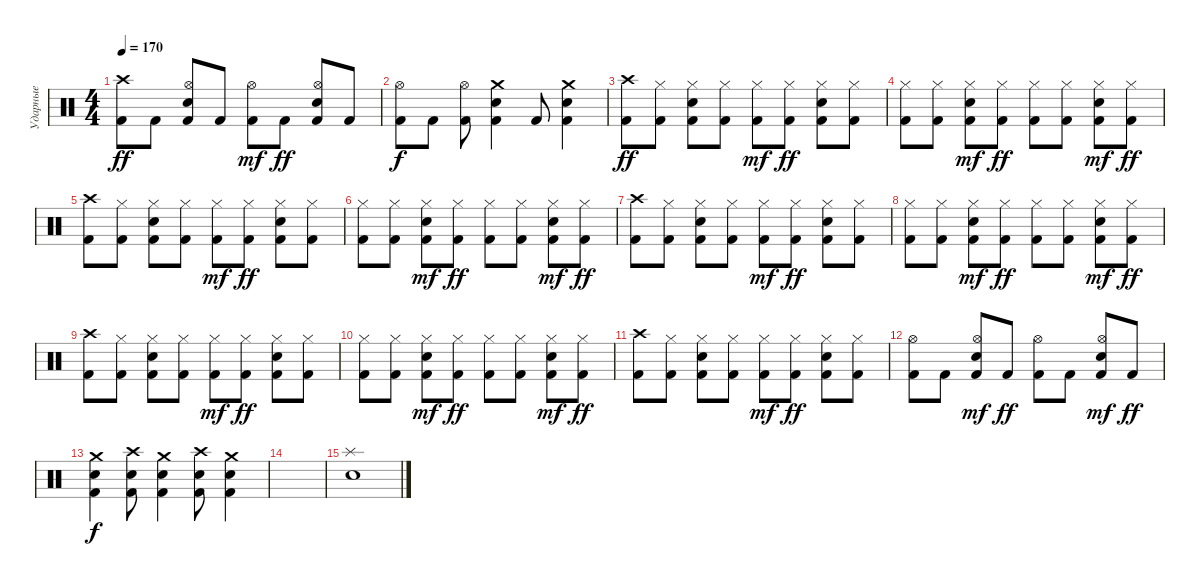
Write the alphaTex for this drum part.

\track ("Ударные" "Ударные") {instrument percussion}
\staff {score}
\articulation defaults
\ts (4 4)
\tempo 170
\clef neutral
\ks c
("Crash high (hit)" "Kick (hit) 2").8{dy ff} "Kick (hit) 2".8 ("Hi-Hat (open)" "Kick (hit) 2" "Electric Snare (hit)").8 "Kick (hit) 2".8 ("Kick (hit) 2" "Hi-Hat (open)").8{dy mf} "Kick (hit) 2".8{dy ff} ("Kick (hit) 2" "Hi-Hat (open)" "Electric Snare (hit)").8 "Kick (hit) 2".8 |
("Kick (hit) 2" "Hi-Hat (open)").8{dy f} "Kick (hit) 2".8 ("Kick (hit) 2" "Hi-Hat (open)").8 ("Crash medium (hit)" "Electric Snare (hit)" "Kick (hit) 2").4 "Kick (hit) 2".8 ("Crash medium (hit)" "Electric Snare (hit)" "Kick (hit) 2").4 |
("Crash high (hit)" "Kick (hit) 2").8{dy ff} ("Kick (hit) 2" "Hi-Hat (closed)").8 ("Hi-Hat (closed)" "Kick (hit) 2" "Electric Snare (hit)").8 ("Kick (hit) 2" "Hi-Hat (closed)").8 ("Kick (hit) 2" "Hi-Hat (closed)").8{dy mf} ("Kick (hit) 2" "Hi-Hat (closed)").8{dy ff} ("Kick (hit) 2" "Hi-Hat (closed)" "Electric Snare (hit)").8 ("Kick (hit) 2" "Hi-Hat (closed)").8 |
("Hi-Hat (closed)" "Kick (hit) 2").8 ("Kick (hit) 2" "Hi-Hat (closed)").8 ("Kick (hit) 2" "Electric Snare (hit)" "Hi-Hat (closed)").8{dy mf} ("Kick (hit) 2" "Hi-Hat (closed)").8{dy ff} ("Hi-Hat (closed)" "Kick (hit) 2").8 ("Kick (hit) 2" "Hi-Hat (closed)").8 ("Kick (hit) 2" "Electric Snare (hit)" "Hi-Hat (closed)").8{dy mf} ("Kick (hit) 2" "Hi-Hat (closed)").8{dy ff} |
("Crash high (hit)" "Kick (hit) 2").8 ("Kick (hit) 2" "Hi-Hat (closed)").8 ("Hi-Hat (closed)" "Kick (hit) 2" "Electric Snare (hit)").8 ("Kick (hit) 2" "Hi-Hat (closed)").8 ("Kick (hit) 2" "Hi-Hat (closed)").8{dy mf} ("Kick (hit) 2" "Hi-Hat (closed)").8{dy ff} ("Kick (hit) 2" "Hi-Hat (closed)" "Electric Snare (hit)").8 ("Kick (hit) 2" "Hi-Hat (closed)").8 |
("Hi-Hat (closed)" "Kick (hit) 2").8 ("Kick (hit) 2" "Hi-Hat (closed)").8 ("Kick (hit) 2" "Electric Snare (hit)" "Hi-Hat (closed)").8{dy mf} ("Kick (hit) 2" "Hi-Hat (closed)").8{dy ff} ("Hi-Hat (closed)" "Kick (hit) 2").8 ("Kick (hit) 2" "Hi-Hat (closed)").8 ("Kick (hit) 2" "Electric Snare (hit)" "Hi-Hat (closed)").8{dy mf} ("Kick (hit) 2" "Hi-Hat (closed)").8{dy ff} |
("Crash high (hit)" "Kick (hit) 2").8 ("Kick (hit) 2" "Hi-Hat (closed)").8 ("Hi-Hat (closed)" "Kick (hit) 2" "Electric Snare (hit)").8 ("Kick (hit) 2" "Hi-Hat (closed)").8 ("Kick (hit) 2" "Hi-Hat (closed)").8{dy mf} ("Kick (hit) 2" "Hi-Hat (closed)").8{dy ff} ("Kick (hit) 2" "Hi-Hat (closed)" "Electric Snare (hit)").8 ("Kick (hit) 2" "Hi-Hat (closed)").8 |
("Hi-Hat (closed)" "Kick (hit) 2").8 ("Kick (hit) 2" "Hi-Hat (closed)").8 ("Kick (hit) 2" "Electric Snare (hit)" "Hi-Hat (closed)").8{dy mf} ("Kick (hit) 2" "Hi-Hat (closed)").8{dy ff} ("Hi-Hat (closed)" "Kick (hit) 2").8 ("Kick (hit) 2" "Hi-Hat (closed)").8 ("Kick (hit) 2" "Electric Snare (hit)" "Hi-Hat (closed)").8{dy mf} ("Kick (hit) 2" "Hi-Hat (closed)").8{dy ff} |
("Crash high (hit)" "Kick (hit) 2").8 ("Kick (hit) 2" "Hi-Hat (closed)").8 ("Hi-Hat (closed)" "Kick (hit) 2" "Electric Snare (hit)").8 ("Kick (hit) 2" "Hi-Hat (closed)").8 ("Kick (hit) 2" "Hi-Hat (closed)").8{dy mf} ("Kick (hit) 2" "Hi-Hat (closed)").8{dy ff} ("Kick (hit) 2" "Hi-Hat (closed)" "Electric Snare (hit)").8 ("Kick (hit) 2" "Hi-Hat (closed)").8 |
("Hi-Hat (closed)" "Kick (hit) 2").8 ("Kick (hit) 2" "Hi-Hat (closed)").8 ("Kick (hit) 2" "Electric Snare (hit)" "Hi-Hat (closed)").8{dy mf} ("Kick (hit) 2" "Hi-Hat (closed)").8{dy ff} ("Hi-Hat (closed)" "Kick (hit) 2").8 ("Kick (hit) 2" "Hi-Hat (closed)").8 ("Kick (hit) 2" "Electric Snare (hit)" "Hi-Hat (closed)").8{dy mf} ("Kick (hit) 2" "Hi-Hat (closed)").8{dy ff} |
("Crash high (hit)" "Kick (hit) 2").8 ("Kick (hit) 2" "Hi-Hat (closed)").8 ("Hi-Hat (closed)" "Kick (hit) 2" "Electric Snare (hit)").8 ("Kick (hit) 2" "Hi-Hat (closed)").8 ("Kick (hit) 2" "Hi-Hat (closed)").8{dy mf} ("Kick (hit) 2" "Hi-Hat (closed)").8{dy ff} ("Kick (hit) 2" "Hi-Hat (closed)" "Electric Snare (hit)").8 ("Kick (hit) 2" "Hi-Hat (closed)").8 |
("Hi-Hat (open)" "Kick (hit) 2").8 "Kick (hit) 2".8 ("Kick (hit) 2" "Electric Snare (hit)" "Hi-Hat (open)").8{dy mf} "Kick (hit) 2".8{dy ff} ("Hi-Hat (open)" "Kick (hit) 2").8 "Kick (hit) 2".8 ("Kick (hit) 2" "Electric Snare (hit)" "Hi-Hat (open)").8{dy mf} "Kick (hit) 2".8{dy ff} |
("Crash medium (hit)" "Kick (hit) 2" "Electric Snare (hit)").4{dy f} ("Crash high (hit)" "Kick (hit) 2" "Electric Snare (hit)").8 ("Crash medium (hit)" "Kick (hit) 2" "Electric Snare (hit)").4 ("Crash high (hit)" "Kick (hit) 2" "Electric Snare (hit)").8 ("Crash medium (hit)" "Kick (hit) 2" "Electric Snare (hit)").4 |
|
("Splash (hit)" "Electric Snare (hit)").1
